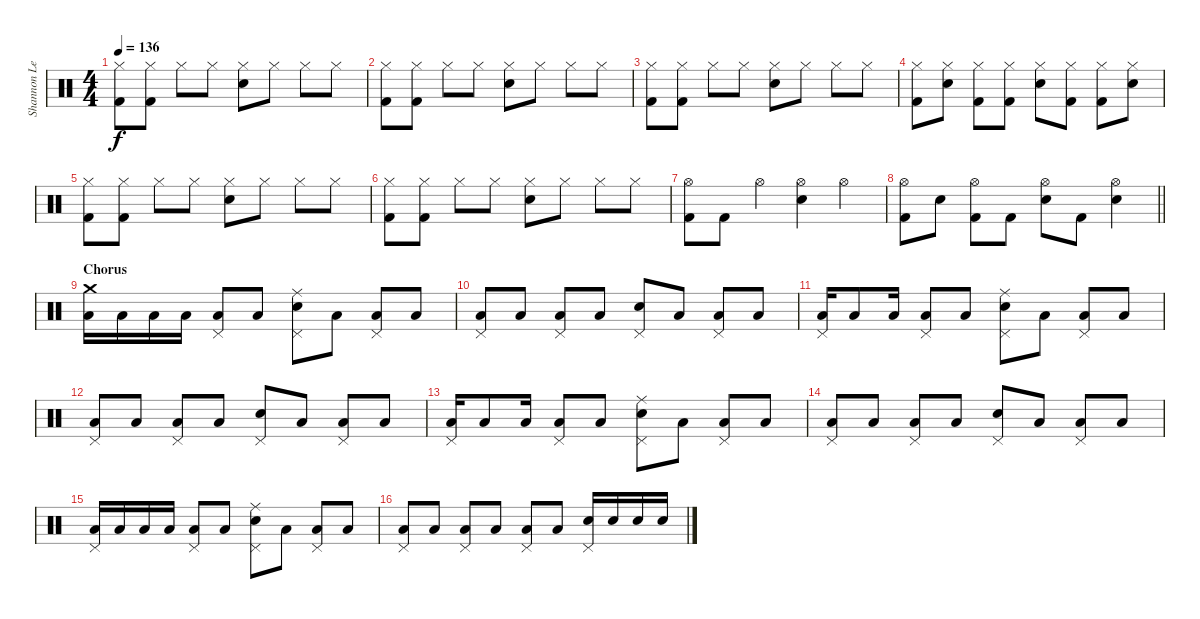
\track ("Shannon Leto [Drums]" "Shannon Le") {instrument percussion}
\staff {score}
\articulation defaults
\ts (4 4)
\tempo 136
\clef neutral
\ks c
("Hi-Hat (closed)" "Kick (hit) 2").8{dy f} ("Hi-Hat (closed)" "Kick (hit) 2").8 "Hi-Hat (closed)".8 "Hi-Hat (closed)".8 ("Hi-Hat (closed)" "Electric Snare (hit)").8 "Hi-Hat (closed)".8 "Hi-Hat (closed)".8 "Hi-Hat (closed)".8 |
("Hi-Hat (closed)" "Kick (hit) 2").8 ("Hi-Hat (closed)" "Kick (hit) 2").8 "Hi-Hat (closed)".8 "Hi-Hat (closed)".8 ("Hi-Hat (closed)" "Electric Snare (hit)").8 "Hi-Hat (closed)".8 "Hi-Hat (closed)".8 "Hi-Hat (closed)".8 |
("Hi-Hat (closed)" "Kick (hit) 2").8 ("Hi-Hat (closed)" "Kick (hit) 2").8 "Hi-Hat (closed)".8 "Hi-Hat (closed)".8 ("Hi-Hat (closed)" "Electric Snare (hit)").8 "Hi-Hat (closed)".8 "Hi-Hat (closed)".8 "Hi-Hat (closed)".8 |
("Hi-Hat (closed)" "Kick (hit) 2").8 ("Hi-Hat (closed)" "Electric Snare (hit)").8 ("Hi-Hat (closed)" "Kick (hit) 2").8 ("Hi-Hat (closed)" "Kick (hit) 2").8 ("Hi-Hat (closed)" "Electric Snare (hit)").8 ("Hi-Hat (closed)" "Kick (hit) 2").8 ("Hi-Hat (closed)" "Kick (hit) 2").8 ("Hi-Hat (closed)" "Electric Snare (hit)").8 |
("Hi-Hat (closed)" "Kick (hit) 2").8 ("Hi-Hat (closed)" "Kick (hit) 2").8 "Hi-Hat (closed)".8 "Hi-Hat (closed)".8 ("Hi-Hat (closed)" "Electric Snare (hit)").8 "Hi-Hat (closed)".8 "Hi-Hat (closed)".8 "Hi-Hat (closed)".8 |
("Hi-Hat (closed)" "Kick (hit) 2").8 ("Hi-Hat (closed)" "Kick (hit) 2").8 "Hi-Hat (closed)".8 "Hi-Hat (closed)".8 ("Hi-Hat (closed)" "Electric Snare (hit)").8 "Hi-Hat (closed)".8 "Hi-Hat (closed)".8 "Hi-Hat (closed)".8 |
("Hi-Hat (open)" "Kick (hit) 2").8 "Kick (hit) 2".8 "Hi-Hat (open)".4 ("Hi-Hat (open)" "Electric Snare (hit)").4 "Hi-Hat (open)".4 |
\barLineRight lightlight
("Hi-Hat (open)" "Kick (hit) 2").8 "Electric Snare (hit)".8 ("Hi-Hat (open)" "Kick (hit) 2").8 "Kick (hit) 2".8 ("Hi-Hat (open)" "Electric Snare (hit)").8 "Kick (hit) 2".8 ("Hi-Hat (open)" "Electric Snare (hit)").4 |
\section ("" "Chorus")
("Crash medium (hit)" "Low Tom (hit)").16 "Low Tom (hit)".16 "Low Tom (hit)".16 "Low Tom (hit)".16 ("Pedal Hi-Hat (hit)" "Low Tom (hit)").8 "Low Tom (hit)".8 ("Pedal Hi-Hat (hit)" "Ride (middle)" "Electric Snare (hit)").8 "Low Tom (hit)".8 ("Pedal Hi-Hat (hit)" "Low Tom (hit)").8 "Low Tom (hit)".8 |
("Pedal Hi-Hat (hit)" "Low Tom (hit)").8 "Low Tom (hit)".8 ("Pedal Hi-Hat (hit)" "Low Tom (hit)").8 "Low Tom (hit)".8 ("Pedal Hi-Hat (hit)" "Electric Snare (hit)").8 "Low Tom (hit)".8 ("Pedal Hi-Hat (hit)" "Low Tom (hit)").8 "Low Tom (hit)".8 |
("Pedal Hi-Hat (hit)" "Low Tom (hit)").16 "Low Tom (hit)".8 "Low Tom (hit)".16 ("Pedal Hi-Hat (hit)" "Low Tom (hit)").8 "Low Tom (hit)".8 ("Pedal Hi-Hat (hit)" "Ride (middle)" "Electric Snare (hit)").8 "Low Tom (hit)".8 ("Pedal Hi-Hat (hit)" "Low Tom (hit)").8 "Low Tom (hit)".8 |
("Pedal Hi-Hat (hit)" "Low Tom (hit)").8 "Low Tom (hit)".8 ("Pedal Hi-Hat (hit)" "Low Tom (hit)").8 "Low Tom (hit)".8 ("Pedal Hi-Hat (hit)" "Electric Snare (hit)").8 "Low Tom (hit)".8 ("Pedal Hi-Hat (hit)" "Low Tom (hit)").8 "Low Tom (hit)".8 |
("Pedal Hi-Hat (hit)" "Low Tom (hit)").16 "Low Tom (hit)".8 "Low Tom (hit)".16 ("Pedal Hi-Hat (hit)" "Low Tom (hit)").8 "Low Tom (hit)".8 ("Pedal Hi-Hat (hit)" "Ride (middle)" "Electric Snare (hit)").8 "Low Tom (hit)".8 ("Pedal Hi-Hat (hit)" "Low Tom (hit)").8 "Low Tom (hit)".8 |
("Pedal Hi-Hat (hit)" "Low Tom (hit)").8 "Low Tom (hit)".8 ("Pedal Hi-Hat (hit)" "Low Tom (hit)").8 "Low Tom (hit)".8 ("Pedal Hi-Hat (hit)" "Electric Snare (hit)").8 "Low Tom (hit)".8 ("Pedal Hi-Hat (hit)" "Low Tom (hit)").8 "Low Tom (hit)".8 |
("Pedal Hi-Hat (hit)" "Low Tom (hit)").16 "Low Tom (hit)".16 "Low Tom (hit)".16 "Low Tom (hit)".16 ("Pedal Hi-Hat (hit)" "Low Tom (hit)").8 "Low Tom (hit)".8 ("Pedal Hi-Hat (hit)" "Ride (middle)" "Electric Snare (hit)").8 "Low Tom (hit)".8 ("Pedal Hi-Hat (hit)" "Low Tom (hit)").8 "Low Tom (hit)".8 |
("Pedal Hi-Hat (hit)" "Low Tom (hit)").8 "Low Tom (hit)".8 ("Pedal Hi-Hat (hit)" "Low Tom (hit)").8 "Low Tom (hit)".8 ("Pedal Hi-Hat (hit)" "Low Tom (hit)").8 "Low Tom (hit)".8 ("Pedal Hi-Hat (hit)" "Electric Snare (hit)").16 "Electric Snare (hit)".16 "Electric Snare (hit)".16 "Electric Snare (hit)".16
